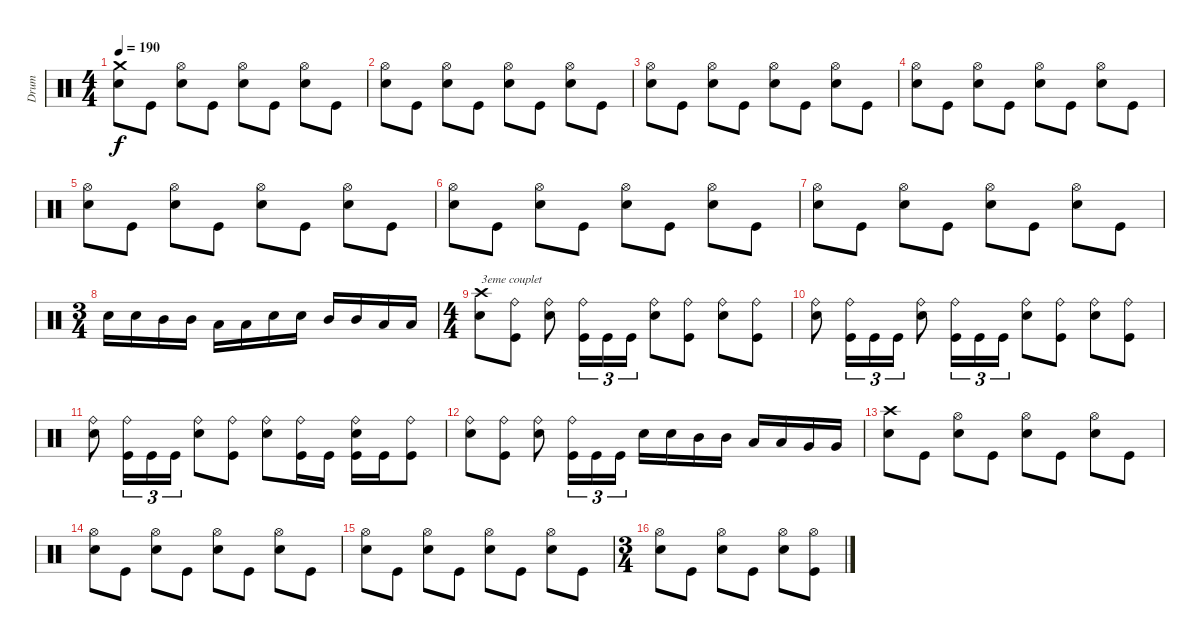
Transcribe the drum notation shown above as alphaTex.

\track ("Drum" "Drum") {instrument percussion}
\staff {score}
\articulation defaults
\ts (4 4)
\tempo 190
\clef neutral
\ks c
("Electric Snare (hit)" "Crash medium (hit)").8{dy f} "Kick (hit)".8 ("Electric Snare (hit)" "Hi-Hat (open)").8 "Kick (hit)".8 ("Electric Snare (hit)" "Hi-Hat (open)").8 "Kick (hit)".8 ("Electric Snare (hit)" "Hi-Hat (open)").8 "Kick (hit)".8 |
("Electric Snare (hit)" "Hi-Hat (open)").8 "Kick (hit)".8 ("Electric Snare (hit)" "Hi-Hat (open)").8 "Kick (hit)".8 ("Electric Snare (hit)" "Hi-Hat (open)").8 "Kick (hit)".8 ("Electric Snare (hit)" "Hi-Hat (open)").8 "Kick (hit)".8 |
("Electric Snare (hit)" "Hi-Hat (open)").8 "Kick (hit)".8 ("Electric Snare (hit)" "Hi-Hat (open)").8 "Kick (hit)".8 ("Electric Snare (hit)" "Hi-Hat (open)").8 "Kick (hit)".8 ("Electric Snare (hit)" "Hi-Hat (open)").8 "Kick (hit)".8 |
("Electric Snare (hit)" "Hi-Hat (open)").8 "Kick (hit)".8 ("Electric Snare (hit)" "Hi-Hat (open)").8 "Kick (hit)".8 ("Electric Snare (hit)" "Hi-Hat (open)").8 "Kick (hit)".8 ("Electric Snare (hit)" "Hi-Hat (open)").8 "Kick (hit)".8 |
("Electric Snare (hit)" "Hi-Hat (open)").8 "Kick (hit)".8 ("Electric Snare (hit)" "Hi-Hat (open)").8 "Kick (hit)".8 ("Electric Snare (hit)" "Hi-Hat (open)").8 "Kick (hit)".8 ("Electric Snare (hit)" "Hi-Hat (open)").8 "Kick (hit)".8 |
("Electric Snare (hit)" "Hi-Hat (open)").8 "Kick (hit)".8 ("Electric Snare (hit)" "Hi-Hat (open)").8 "Kick (hit)".8 ("Electric Snare (hit)" "Hi-Hat (open)").8 "Kick (hit)".8 ("Electric Snare (hit)" "Hi-Hat (open)").8 "Kick (hit)".8 |
("Electric Snare (hit)" "Hi-Hat (open)").8 "Kick (hit)".8 ("Electric Snare (hit)" "Hi-Hat (open)").8 "Kick (hit)".8 ("Electric Snare (hit)" "Hi-Hat (open)").8 "Kick (hit)".8 ("Electric Snare (hit)" "Hi-Hat (open)").8 "Kick (hit)".8 |
\ts (3 4)
"Electric Snare (hit)".16 "Electric Snare (hit)".16 "Mid Tom (hit)".16 "Mid Tom (hit)".16 "Low Tom (hit)".16 "Low Tom (hit)".16 "Electric Snare (hit)".16 "Electric Snare (hit)".16 "Mid Tom (hit)".16 "Mid Tom (hit)".16 "Low Tom (hit)".16 "Low Tom (hit)".16 |
\ts (4 4)
("Electric Snare (hit)" "Crash high (hit)").8{txt "3eme couplet"} ("Kick (hit)" "Ride (bell)").8 ("Electric Snare (hit)" "Ride (bell)").8 ("Kick (hit)" "Ride (bell)").16{tu (3 2)} "Kick (hit)".16{tu (3 2)} "Kick (hit)".16{tu (3 2)} ("Electric Snare (hit)" "Ride (bell)").8 ("Kick (hit)" "Ride (bell)").8 ("Electric Snare (hit)" "Ride (bell)").8 ("Kick (hit)" "Ride (bell)").8 |
("Electric Snare (hit)" "Ride (bell)").8 ("Kick (hit)" "Ride (bell)").16{tu (3 2)} "Kick (hit)".16{tu (3 2)} "Kick (hit)".16{tu (3 2)} ("Electric Snare (hit)" "Ride (bell)").8 ("Kick (hit)" "Ride (bell)").16{tu (3 2)} "Kick (hit)".16{tu (3 2)} "Kick (hit)".16{tu (3 2)} ("Electric Snare (hit)" "Ride (bell)").8 ("Kick (hit)" "Ride (bell)").8 ("Electric Snare (hit)" "Ride (bell)").8 ("Kick (hit)" "Ride (bell)").8 |
("Electric Snare (hit)" "Ride (bell)").8 ("Kick (hit)" "Ride (bell)").16{tu (3 2)} "Kick (hit)".16{tu (3 2)} "Kick (hit)".16{tu (3 2)} ("Electric Snare (hit)" "Ride (bell)").8 ("Kick (hit)" "Ride (bell)").8 ("Electric Snare (hit)" "Ride (bell)").8 ("Kick (hit)" "Ride (bell)").16 "Kick (hit)".16 ("Kick (hit)" "Electric Snare (hit)" "Ride (bell)").16 "Kick (hit)".16 ("Kick (hit)" "Ride (bell)").8 |
("Electric Snare (hit)" "Ride (bell)").8 ("Kick (hit)" "Ride (bell)").8 ("Electric Snare (hit)" "Ride (bell)").8 ("Kick (hit)" "Ride (bell)").16{tu (3 2)} "Kick (hit)".16{tu (3 2)} "Kick (hit)".16{tu (3 2)} "Electric Snare (hit)".16 "Electric Snare (hit)".16 "Mid Tom (hit)".16 "Mid Tom (hit)".16 "Low Tom (hit)".16 "Low Tom (hit)".16 "Very Low Tom (hit)".16 "Very Low Tom (hit)".16 |
("Electric Snare (hit)" "Crash high (hit)").8 "Kick (hit)".8 ("Electric Snare (hit)" "Hi-Hat (open)").8 "Kick (hit)".8 ("Electric Snare (hit)" "Hi-Hat (open)").8 "Kick (hit)".8 ("Electric Snare (hit)" "Hi-Hat (open)").8 "Kick (hit)".8 |
("Electric Snare (hit)" "Hi-Hat (open)").8 "Kick (hit)".8 ("Electric Snare (hit)" "Hi-Hat (open)").8 "Kick (hit)".8 ("Electric Snare (hit)" "Hi-Hat (open)").8 "Kick (hit)".8 ("Electric Snare (hit)" "Hi-Hat (open)").8 "Kick (hit)".8 |
("Electric Snare (hit)" "Hi-Hat (open)").8 "Kick (hit)".8 ("Electric Snare (hit)" "Hi-Hat (open)").8 "Kick (hit)".8 ("Electric Snare (hit)" "Hi-Hat (open)").8 "Kick (hit)".8 ("Electric Snare (hit)" "Hi-Hat (open)").8 "Kick (hit)".8 |
\ts (3 4)
("Electric Snare (hit)" "Hi-Hat (open)").8 "Kick (hit)".8 ("Electric Snare (hit)" "Hi-Hat (open)").8 "Kick (hit)".8 ("Electric Snare (hit)" "Hi-Hat (open)").8 ("Kick (hit)" "Hi-Hat (open)").8
